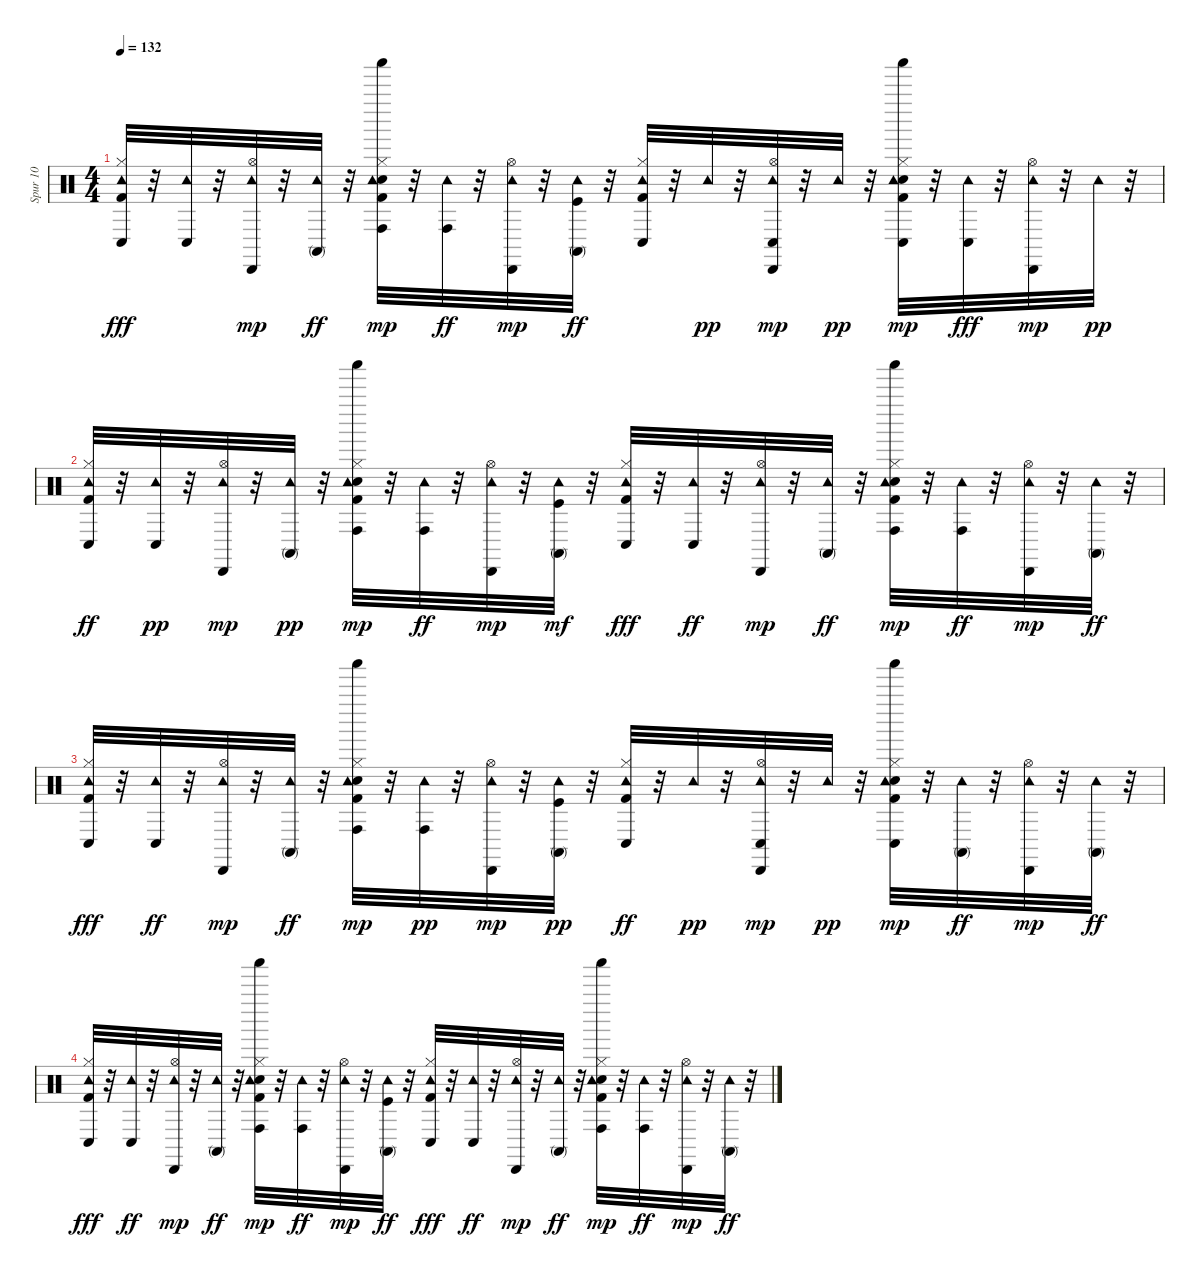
\track ("Spur 10" "Spur 10") {instrument percussion}
\staff {score}
\articulation defaults
\ts (4 4)
\tempo 132
\clef neutral
\ks c
("Kick (hit) 2" "Hi-Hat (closed)" "Tambourine (hit)" "Conga low (hit)").32{dy fff} r.32 ("Tambourine (hit)" "Conga low (hit)").32 r.32 ("Hi-Hat (open)" "Tambourine (hit)" "Cabasa (hit)").32{dy mp} r.32 ("Tambourine (hit)" "Conga high (mute)").32{dy ff} r.32 ("Snare (hit) 2" "Kick (hit) 2" "Hi-Hat (closed)" "Tambourine (hit)" "Conga high (hit)" "Shaker (hit)").32{dy mp} r.32 ("Tambourine (hit)" "Conga high (hit)").32{dy ff} r.32 ("Hi-Hat (open)" "Tambourine (hit)" "Cabasa (hit)").32{dy mp} r.32 ("Kick (hit)" "Tambourine (hit)" "Conga high (mute)").32{dy ff} r.32 ("Kick (hit) 2" "Hi-Hat (closed)" "Tambourine (hit)" "Conga low (hit)").32 r.32 "Tambourine (hit)".32{dy pp} r.32 ("Hi-Hat (open)" "Tambourine (hit)" "Conga low (hit)" "Cabasa (hit)").32{dy mp} r.32 "Tambourine (hit)".32{dy pp} r.32 ("Snare (hit) 2" "Kick (hit) 2" "Hi-Hat (closed)" "Tambourine (hit)" "Conga low (hit)" "Shaker (hit)").32{dy mp} r.32 ("Tambourine (hit)" "Conga low (hit)").32{dy fff} r.32 ("Hi-Hat (open)" "Tambourine (hit)" "Cabasa (hit)").32{dy mp} r.32 "Tambourine (hit)".32{dy pp} r.32 |
("Kick (hit) 2" "Hi-Hat (closed)" "Tambourine (hit)" "Conga low (hit)").32{dy ff} r.32 ("Tambourine (hit)" "Conga low (hit)").32{dy pp} r.32 ("Hi-Hat (open)" "Tambourine (hit)" "Cabasa (hit)").32{dy mp} r.32 ("Tambourine (hit)" "Conga high (mute)").32{dy pp} r.32 ("Snare (hit) 2" "Kick (hit) 2" "Hi-Hat (closed)" "Tambourine (hit)" "Conga high (hit)" "Shaker (hit)").32{dy mp} r.32 ("Tambourine (hit)" "Conga high (hit)").32{dy ff} r.32 ("Hi-Hat (open)" "Tambourine (hit)" "Cabasa (hit)").32{dy mp} r.32 ("Kick (hit)" "Tambourine (hit)" "Conga high (mute)").32{dy mf} r.32 ("Kick (hit) 2" "Hi-Hat (closed)" "Tambourine (hit)" "Conga low (hit)").32{dy fff} r.32 ("Tambourine (hit)" "Conga low (hit)").32{dy ff} r.32 ("Hi-Hat (open)" "Tambourine (hit)" "Cabasa (hit)").32{dy mp} r.32 ("Tambourine (hit)" "Conga high (mute)").32{dy ff} r.32 ("Snare (hit) 2" "Kick (hit) 2" "Hi-Hat (closed)" "Tambourine (hit)" "Conga high (hit)" "Shaker (hit)").32{dy mp} r.32 ("Tambourine (hit)" "Conga high (hit)").32{dy ff} r.32 ("Hi-Hat (open)" "Tambourine (hit)" "Cabasa (hit)").32{dy mp} r.32 ("Tambourine (hit)" "Conga high (mute)").32{dy ff} r.32 |
("Kick (hit) 2" "Hi-Hat (closed)" "Tambourine (hit)" "Conga low (hit)").32{dy fff} r.32 ("Tambourine (hit)" "Conga low (hit)").32{dy ff} r.32 ("Hi-Hat (open)" "Tambourine (hit)" "Cabasa (hit)").32{dy mp} r.32 ("Tambourine (hit)" "Conga high (mute)").32{dy ff} r.32 ("Snare (hit) 2" "Kick (hit) 2" "Hi-Hat (closed)" "Tambourine (hit)" "Conga high (hit)" "Shaker (hit)").32{dy mp} r.32 ("Tambourine (hit)" "Conga high (hit)").32{dy pp} r.32 ("Hi-Hat (open)" "Tambourine (hit)" "Cabasa (hit)").32{dy mp} r.32 ("Kick (hit)" "Tambourine (hit)" "Conga high (mute)").32{dy pp} r.32 ("Kick (hit) 2" "Hi-Hat (closed)" "Tambourine (hit)" "Conga low (hit)").32{dy ff} r.32 "Tambourine (hit)".32{dy pp} r.32 ("Hi-Hat (open)" "Tambourine (hit)" "Conga low (hit)" "Cabasa (hit)").32{dy mp} r.32 "Tambourine (hit)".32{dy pp} r.32 ("Snare (hit) 2" "Kick (hit) 2" "Hi-Hat (closed)" "Tambourine (hit)" "Conga low (hit)" "Shaker (hit)").32{dy mp} r.32 ("Tambourine (hit)" "Conga high (mute)").32{dy ff} r.32 ("Hi-Hat (open)" "Tambourine (hit)" "Cabasa (hit)").32{dy mp} r.32 ("Tambourine (hit)" "Conga high (mute)").32{dy ff} r.32 |
("Kick (hit) 2" "Hi-Hat (closed)" "Tambourine (hit)" "Conga low (hit)").32{dy fff} r.32 ("Tambourine (hit)" "Conga low (hit)").32{dy ff} r.32 ("Hi-Hat (open)" "Tambourine (hit)" "Cabasa (hit)").32{dy mp} r.32 ("Tambourine (hit)" "Conga high (mute)").32{dy ff} r.32 ("Snare (hit) 2" "Kick (hit) 2" "Hi-Hat (closed)" "Tambourine (hit)" "Conga high (hit)" "Shaker (hit)").32{dy mp} r.32 ("Tambourine (hit)" "Conga high (hit)").32{dy ff} r.32 ("Hi-Hat (open)" "Tambourine (hit)" "Cabasa (hit)").32{dy mp} r.32 ("Kick (hit)" "Tambourine (hit)" "Conga high (mute)").32{dy ff} r.32 ("Kick (hit) 2" "Hi-Hat (closed)" "Tambourine (hit)" "Conga low (hit)").32{dy fff} r.32 ("Tambourine (hit)" "Conga low (hit)").32{dy ff} r.32 ("Hi-Hat (open)" "Tambourine (hit)" "Cabasa (hit)").32{dy mp} r.32 ("Tambourine (hit)" "Conga high (mute)").32{dy ff} r.32 ("Snare (hit) 2" "Kick (hit) 2" "Hi-Hat (closed)" "Tambourine (hit)" "Conga high (hit)" "Shaker (hit)").32{dy mp} r.32 ("Tambourine (hit)" "Conga high (hit)").32{dy ff} r.32 ("Hi-Hat (open)" "Tambourine (hit)" "Cabasa (hit)").32{dy mp} r.32 ("Tambourine (hit)" "Conga high (mute)").32{dy ff} r.32
